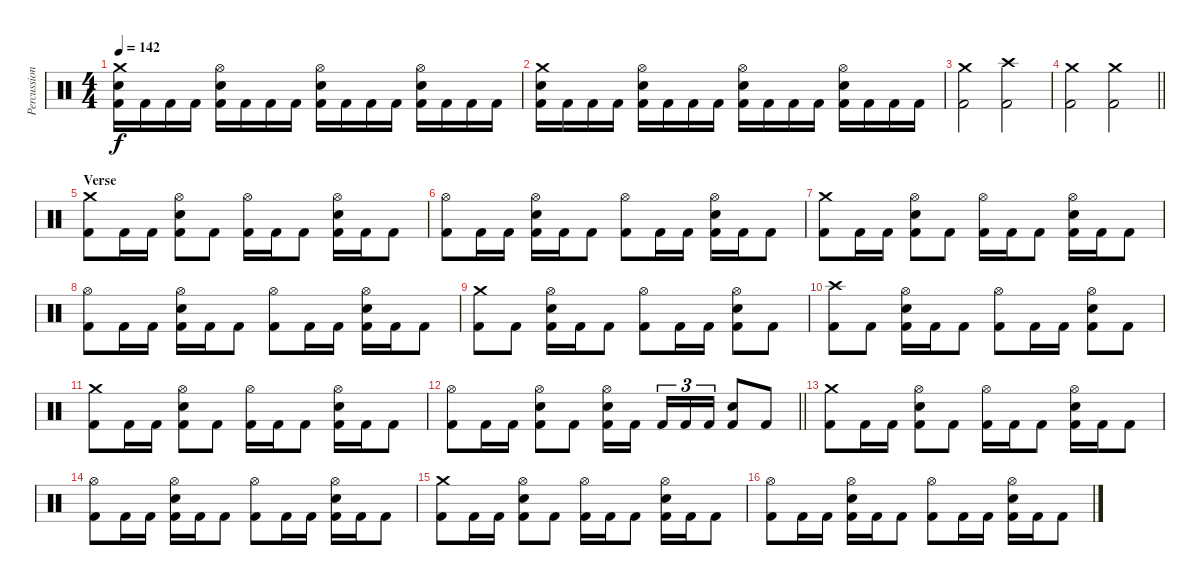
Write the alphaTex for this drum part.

\track ("Percussion" "Percussion") {instrument percussion}
\staff {score}
\articulation defaults
\ts (4 4)
\tempo 142
\clef neutral
\ks c
("Crash medium (hit)" "Snare (hit) 2" "Kick (hit) 2").16{dy f} "Kick (hit) 2".16 "Kick (hit) 2".16 "Kick (hit) 2".16 ("Hi-Hat (open)" "Snare (hit) 2" "Kick (hit) 2").16 "Kick (hit) 2".16 "Kick (hit) 2".16 "Kick (hit) 2".16 ("Hi-Hat (open)" "Snare (hit) 2" "Kick (hit) 2").16 "Kick (hit) 2".16 "Kick (hit) 2".16 "Kick (hit) 2".16 ("Hi-Hat (open)" "Snare (hit) 2" "Kick (hit) 2").16 "Kick (hit) 2".16 "Kick (hit) 2".16 "Kick (hit) 2".16 |
("Crash medium (hit)" "Snare (hit) 2" "Kick (hit) 2").16 "Kick (hit) 2".16 "Kick (hit) 2".16 "Kick (hit) 2".16 ("Hi-Hat (open)" "Snare (hit) 2" "Kick (hit) 2").16 "Kick (hit) 2".16 "Kick (hit) 2".16 "Kick (hit) 2".16 ("Hi-Hat (open)" "Snare (hit) 2" "Kick (hit) 2").16 "Kick (hit) 2".16 "Kick (hit) 2".16 "Kick (hit) 2".16 ("Hi-Hat (open)" "Snare (hit) 2" "Kick (hit) 2").16 "Kick (hit) 2".16 "Kick (hit) 2".16 "Kick (hit) 2".16 |
("Crash medium (hit)" "Kick (hit) 2").2 ("Crash high (hit)" "Kick (hit) 2").2 |
\barLineRight lightlight
("Crash medium (hit)" "Kick (hit) 2").2 ("Crash medium (hit)" "Kick (hit) 2").2 |
\section ("" "Verse")
("Crash medium (hit)" "Kick (hit) 2").8 "Kick (hit) 2".16 "Kick (hit) 2".16 ("Hi-Hat (open)" "Snare (hit) 2" "Kick (hit) 2").8 "Kick (hit) 2".8 ("Hi-Hat (open)" "Kick (hit) 2").16 "Kick (hit) 2".16 "Kick (hit) 2".8 ("Hi-Hat (open)" "Snare (hit) 2" "Kick (hit) 2").16 "Kick (hit) 2".16 "Kick (hit) 2".8 |
("Hi-Hat (open)" "Kick (hit) 2").8 "Kick (hit) 2".16 "Kick (hit) 2".16 ("Hi-Hat (open)" "Snare (hit) 2" "Kick (hit) 2").16 "Kick (hit) 2".16 "Kick (hit) 2".8 ("Hi-Hat (open)" "Kick (hit) 2").8 "Kick (hit) 2".16 "Kick (hit) 2".16 ("Hi-Hat (open)" "Snare (hit) 2" "Kick (hit) 2").16 "Kick (hit) 2".16 "Kick (hit) 2".8 |
("Crash medium (hit)" "Kick (hit) 2").8 "Kick (hit) 2".16 "Kick (hit) 2".16 ("Hi-Hat (open)" "Snare (hit) 2" "Kick (hit) 2").8 "Kick (hit) 2".8 ("Hi-Hat (open)" "Kick (hit) 2").16 "Kick (hit) 2".16 "Kick (hit) 2".8 ("Hi-Hat (open)" "Snare (hit) 2" "Kick (hit) 2").16 "Kick (hit) 2".16 "Kick (hit) 2".8 |
("Hi-Hat (open)" "Kick (hit) 2").8 "Kick (hit) 2".16 "Kick (hit) 2".16 ("Hi-Hat (open)" "Snare (hit) 2" "Kick (hit) 2").16 "Kick (hit) 2".16 "Kick (hit) 2".8 ("Hi-Hat (open)" "Kick (hit) 2").8 "Kick (hit) 2".16 "Kick (hit) 2".16 ("Hi-Hat (open)" "Snare (hit) 2" "Kick (hit) 2").16 "Kick (hit) 2".16 "Kick (hit) 2".8 |
("Crash medium (hit)" "Kick (hit) 2").8 "Kick (hit) 2".8 ("Hi-Hat (open)" "Snare (hit) 2" "Kick (hit) 2").16 "Kick (hit) 2".16 "Kick (hit) 2".8 ("Hi-Hat (open)" "Kick (hit) 2").8 "Kick (hit) 2".16 "Kick (hit) 2".16 ("Hi-Hat (open)" "Snare (hit) 2" "Kick (hit) 2").8 "Kick (hit) 2".8 |
("Crash high (hit)" "Kick (hit) 2").8 "Kick (hit) 2".8 ("Hi-Hat (open)" "Snare (hit) 2" "Kick (hit) 2").16 "Kick (hit) 2".16 "Kick (hit) 2".8 ("Hi-Hat (open)" "Kick (hit) 2").8 "Kick (hit) 2".16 "Kick (hit) 2".16 ("Hi-Hat (open)" "Snare (hit) 2" "Kick (hit) 2").8 "Kick (hit) 2".8 |
("Crash medium (hit)" "Kick (hit) 2").8 "Kick (hit) 2".16 "Kick (hit) 2".16 ("Hi-Hat (open)" "Snare (hit) 2" "Kick (hit) 2").8 "Kick (hit) 2".8 ("Hi-Hat (open)" "Kick (hit) 2").16 "Kick (hit) 2".16 "Kick (hit) 2".8 ("Hi-Hat (open)" "Snare (hit) 2" "Kick (hit) 2").16 "Kick (hit) 2".16 "Kick (hit) 2".8 |
\barLineRight lightlight
("Hi-Hat (open)" "Kick (hit) 2").8 "Kick (hit) 2".16 "Kick (hit) 2".16 ("Hi-Hat (open)" "Snare (hit) 2" "Kick (hit) 2").8 "Kick (hit) 2".8 ("Hi-Hat (open)" "Snare (hit) 2" "Kick (hit) 2").16 "Kick (hit) 2".16{beam splitsecondary} "Kick (hit) 2".16{tu (3 2)} "Kick (hit) 2".16{tu (3 2)} "Kick (hit) 2".16{tu (3 2)} ("Snare (hit) 2" "Kick (hit) 2").8 "Kick (hit) 2".8 |
\section ("" "")
("Crash medium (hit)" "Kick (hit) 2").8 "Kick (hit) 2".16 "Kick (hit) 2".16 ("Hi-Hat (open)" "Snare (hit) 2" "Kick (hit) 2").8 "Kick (hit) 2".8 ("Hi-Hat (open)" "Kick (hit) 2").16 "Kick (hit) 2".16 "Kick (hit) 2".8 ("Hi-Hat (open)" "Snare (hit) 2" "Kick (hit) 2").16 "Kick (hit) 2".16 "Kick (hit) 2".8 |
("Hi-Hat (open)" "Kick (hit) 2").8 "Kick (hit) 2".16 "Kick (hit) 2".16 ("Hi-Hat (open)" "Snare (hit) 2" "Kick (hit) 2").16 "Kick (hit) 2".16 "Kick (hit) 2".8 ("Hi-Hat (open)" "Kick (hit) 2").8 "Kick (hit) 2".16 "Kick (hit) 2".16 ("Hi-Hat (open)" "Snare (hit) 2" "Kick (hit) 2").16 "Kick (hit) 2".16 "Kick (hit) 2".8 |
("Crash medium (hit)" "Kick (hit) 2").8 "Kick (hit) 2".16 "Kick (hit) 2".16 ("Hi-Hat (open)" "Snare (hit) 2" "Kick (hit) 2").8 "Kick (hit) 2".8 ("Hi-Hat (open)" "Kick (hit) 2").16 "Kick (hit) 2".16 "Kick (hit) 2".8 ("Hi-Hat (open)" "Snare (hit) 2" "Kick (hit) 2").16 "Kick (hit) 2".16 "Kick (hit) 2".8 |
("Hi-Hat (open)" "Kick (hit) 2").8 "Kick (hit) 2".16 "Kick (hit) 2".16 ("Hi-Hat (open)" "Snare (hit) 2" "Kick (hit) 2").16 "Kick (hit) 2".16 "Kick (hit) 2".8 ("Hi-Hat (open)" "Kick (hit) 2").8 "Kick (hit) 2".16 "Kick (hit) 2".16 ("Hi-Hat (open)" "Snare (hit) 2" "Kick (hit) 2").16 "Kick (hit) 2".16 "Kick (hit) 2".8
